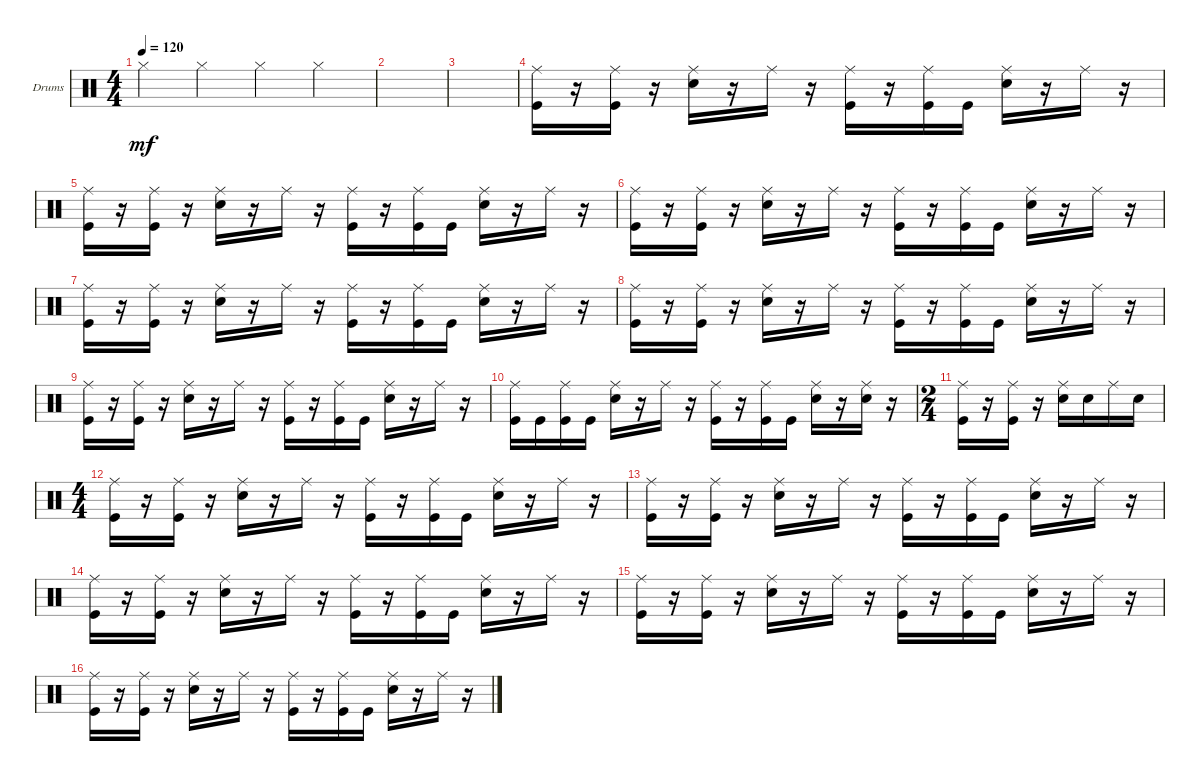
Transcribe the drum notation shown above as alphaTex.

\defaultSystemsLayout 4
\bracketExtendMode groupsimilarinstruments
\firstSystemTrackNameOrientation horizontal
\otherSystemsTrackNameOrientation horizontal
\track ("Drumkit" "Drums") {instrument percussion}
\staff {score}
\articulation defaults
\ts (4 4)
\tempo 120
\clef neutral
\ks c "Hi-Hat (closed)".4{dy mf} "Hi-Hat (closed)".4 "Hi-Hat (closed)".4 "Hi-Hat (closed)".4
|
|
|
("Ride (middle)" "Kick (hit)").16 r.16 ("Ride (middle)" "Kick (hit)").16 r.16 ("Ride (middle)" "Snare (hit) 2").16 r.16 "Ride (middle)".16 r.16 ("Ride (middle)" "Kick (hit)").16 r.16 ("Ride (middle)" "Kick (hit)").16 "Kick (hit)".16 ("Ride (middle)" "Snare (hit) 2").16 r.16 "Ride (middle)".16 r.16 |
("Ride (middle)" "Kick (hit)").16 r.16 ("Ride (middle)" "Kick (hit)").16 r.16 ("Ride (middle)" "Snare (hit) 2").16 r.16 "Ride (middle)".16 r.16 ("Ride (middle)" "Kick (hit)").16 r.16 ("Ride (middle)" "Kick (hit)").16 "Kick (hit)".16 ("Ride (middle)" "Snare (hit) 2").16 r.16 "Ride (middle)".16 r.16 |
("Ride (middle)" "Kick (hit)").16 r.16 ("Ride (middle)" "Kick (hit)").16 r.16 ("Ride (middle)" "Snare (hit) 2").16 r.16 "Ride (middle)".16 r.16 ("Ride (middle)" "Kick (hit)").16 r.16 ("Ride (middle)" "Kick (hit)").16 "Kick (hit)".16 ("Ride (middle)" "Snare (hit) 2").16 r.16 "Ride (middle)".16 r.16 |
("Ride (middle)" "Kick (hit)").16 r.16 ("Ride (middle)" "Kick (hit)").16 r.16 ("Ride (middle)" "Snare (hit) 2").16 r.16 "Ride (middle)".16 r.16 ("Ride (middle)" "Kick (hit)").16 r.16 ("Ride (middle)" "Kick (hit)").16 "Kick (hit)".16 ("Ride (middle)" "Snare (hit) 2").16 r.16 "Ride (middle)".16 r.16 |
("Ride (middle)" "Kick (hit)").16 r.16 ("Ride (middle)" "Kick (hit)").16 r.16 ("Ride (middle)" "Snare (hit) 2").16 r.16 "Ride (middle)".16 r.16 ("Ride (middle)" "Kick (hit)").16 r.16 ("Ride (middle)" "Kick (hit)").16 "Kick (hit)".16 ("Ride (middle)" "Snare (hit) 2").16 r.16 "Ride (middle)".16 r.16 |
("Ride (middle)" "Kick (hit)").16 r.16 ("Ride (middle)" "Kick (hit)").16 r.16 ("Ride (middle)" "Snare (hit) 2").16 r.16 "Ride (middle)".16 r.16 ("Ride (middle)" "Kick (hit)").16 r.16 ("Ride (middle)" "Kick (hit)").16 "Kick (hit)".16 ("Ride (middle)" "Snare (hit) 2").16 r.16 "Ride (middle)".16 r.16 |
("Ride (middle)" "Kick (hit)").16 "Kick (hit)".16 ("Ride (middle)" "Kick (hit)").16 "Kick (hit)".16 ("Ride (middle)" "Snare (hit) 2").16 r.16 "Ride (middle)".16 r.16 ("Ride (middle)" "Kick (hit)").16 r.16 ("Ride (middle)" "Kick (hit)").16 "Kick (hit)".16 ("Ride (middle)" "Snare (hit) 2").16 r.16 ("Ride (middle)" "Snare (hit) 2").16 r.16 |
\ts (2 4)
("Ride (middle)" "Kick (hit)").16 r.16 ("Ride (middle)" "Kick (hit)").16 r.16 ("Ride (middle)" "Snare (hit) 2").16 "Snare (hit) 2".16 "Ride (middle)".16 "Snare (hit) 2".16 |
\ts (4 4)
("Ride (middle)" "Kick (hit)").16 r.16 ("Ride (middle)" "Kick (hit)").16 r.16 ("Ride (middle)" "Snare (hit) 2").16 r.16 "Ride (middle)".16 r.16 ("Ride (middle)" "Kick (hit)").16 r.16 ("Ride (middle)" "Kick (hit)").16 "Kick (hit)".16 ("Ride (middle)" "Snare (hit) 2").16 r.16 "Ride (middle)".16 r.16 |
("Ride (middle)" "Kick (hit)").16 r.16 ("Ride (middle)" "Kick (hit)").16 r.16 ("Ride (middle)" "Snare (hit) 2").16 r.16 "Ride (middle)".16 r.16 ("Ride (middle)" "Kick (hit)").16 r.16 ("Ride (middle)" "Kick (hit)").16 "Kick (hit)".16 ("Ride (middle)" "Snare (hit) 2").16 r.16 "Ride (middle)".16 r.16 |
("Ride (middle)" "Kick (hit)").16 r.16 ("Ride (middle)" "Kick (hit)").16 r.16 ("Ride (middle)" "Snare (hit) 2").16 r.16 "Ride (middle)".16 r.16 ("Ride (middle)" "Kick (hit)").16 r.16 ("Ride (middle)" "Kick (hit)").16 "Kick (hit)".16 ("Ride (middle)" "Snare (hit) 2").16 r.16 "Ride (middle)".16 r.16 |
("Ride (middle)" "Kick (hit)").16 r.16 ("Ride (middle)" "Kick (hit)").16 r.16 ("Ride (middle)" "Snare (hit) 2").16 r.16 "Ride (middle)".16 r.16 ("Ride (middle)" "Kick (hit)").16 r.16 ("Ride (middle)" "Kick (hit)").16 "Kick (hit)".16 ("Ride (middle)" "Snare (hit) 2").16 r.16 "Ride (middle)".16 r.16 |
("Ride (middle)" "Kick (hit)").16 r.16 ("Ride (middle)" "Kick (hit)").16 r.16 ("Ride (middle)" "Snare (hit) 2").16 r.16 "Ride (middle)".16 r.16 ("Ride (middle)" "Kick (hit)").16 r.16 ("Ride (middle)" "Kick (hit)").16 "Kick (hit)".16 ("Ride (middle)" "Snare (hit) 2").16 r.16 "Ride (middle)".16 r.16
